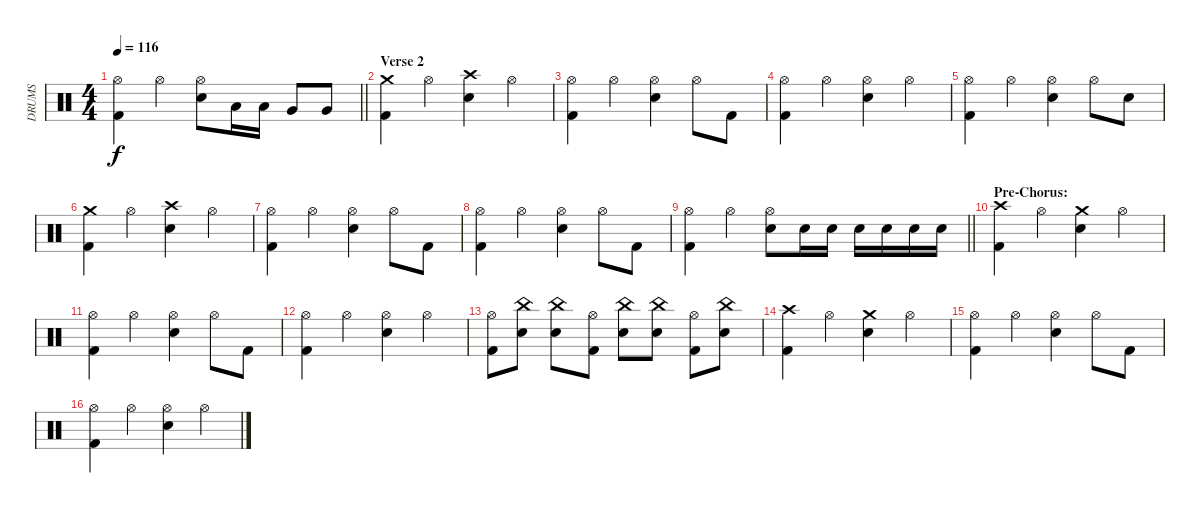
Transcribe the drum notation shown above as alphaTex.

\track ("DRUMS" "DRUMS") {instrument percussion}
\staff {score}
\articulation defaults
\ts (4 4)
\tempo 116
\clef neutral
\barLineRight lightlight
\ks c
("Hi-Hat (open)" "Kick (hit) 2").4{dy f} "Hi-Hat (open)".4 ("Hi-Hat (open)" "Snare (hit) 2").8 "Low Tom (hit)".16 "Low Tom (hit)".16 "Very Low Tom (hit)".8 "Very Low Tom (hit)".8 |
\section ("" "Verse 2")
("Crash medium (hit)" "Kick (hit) 2").4 "Hi-Hat (open)".4 ("Crash high (hit)" "Snare (hit) 2").4 "Hi-Hat (open)".4 |
("Hi-Hat (open)" "Kick (hit) 2").4 "Hi-Hat (open)".4 ("Hi-Hat (open)" "Snare (hit) 2").4 "Hi-Hat (open)".8 "Kick (hit) 2".8 |
("Hi-Hat (open)" "Kick (hit) 2").4 "Hi-Hat (open)".4 ("Hi-Hat (open)" "Snare (hit) 2").4 "Hi-Hat (open)".4 |
("Hi-Hat (open)" "Kick (hit) 2").4 "Hi-Hat (open)".4 ("Hi-Hat (open)" "Snare (hit) 2").4 "Hi-Hat (open)".8 "Snare (hit) 2".8 |
("Crash medium (hit)" "Kick (hit) 2").4 "Hi-Hat (open)".4 ("Crash high (hit)" "Snare (hit) 2").4 "Hi-Hat (open)".4 |
("Hi-Hat (open)" "Kick (hit) 2").4 "Hi-Hat (open)".4 ("Hi-Hat (open)" "Snare (hit) 2").4 "Hi-Hat (open)".8 "Kick (hit) 2".8 |
("Hi-Hat (open)" "Kick (hit) 2").4 "Hi-Hat (open)".4 ("Hi-Hat (open)" "Snare (hit) 2").4 "Hi-Hat (open)".8 "Kick (hit) 2".8 |
\barLineRight lightlight
("Hi-Hat (open)" "Kick (hit) 2").4 "Hi-Hat (open)".4 ("Hi-Hat (open)" "Snare (hit) 2").8 "Snare (hit) 2".16 "Snare (hit) 2".16 "Snare (hit) 2".16 "Snare (hit) 2".16 "Snare (hit) 2".16 "Snare (hit) 2".16 |
\section ("" "Pre-Chorus:")
("Crash high (hit)" "Kick (hit) 2").4 "Hi-Hat (open)".4 ("Crash medium (hit)" "Snare (hit) 2").4 "Hi-Hat (open)".4 |
("Hi-Hat (open)" "Kick (hit) 2").4 "Hi-Hat (open)".4 ("Hi-Hat (open)" "Snare (hit) 2").4 "Hi-Hat (open)".8 "Kick (hit) 2".8 |
("Hi-Hat (open)" "Kick (hit) 2").4 "Hi-Hat (open)".4 ("Hi-Hat (open)" "Snare (hit) 2").4 "Hi-Hat (open)".4 |
("Hi-Hat (open)" "Kick (hit) 2").8 ("China (hit)" "Snare (hit) 2").8 ("China (hit)" "Snare (hit) 2").8 ("Hi-Hat (open)" "Kick (hit) 2").8 ("China (hit)" "Snare (hit) 2").8 ("China (hit)" "Snare (hit) 2").8 ("Hi-Hat (open)" "Kick (hit) 2").8 ("China (hit)" "Snare (hit) 2").8 |
("Crash high (hit)" "Kick (hit) 2").4 "Hi-Hat (open)".4 ("Crash medium (hit)" "Snare (hit) 2").4 "Hi-Hat (open)".4 |
("Hi-Hat (open)" "Kick (hit) 2").4 "Hi-Hat (open)".4 ("Hi-Hat (open)" "Snare (hit) 2").4 "Hi-Hat (open)".8 "Kick (hit) 2".8 |
("Hi-Hat (open)" "Kick (hit) 2").4 "Hi-Hat (open)".4 ("Hi-Hat (open)" "Snare (hit) 2").4 "Hi-Hat (open)".4
